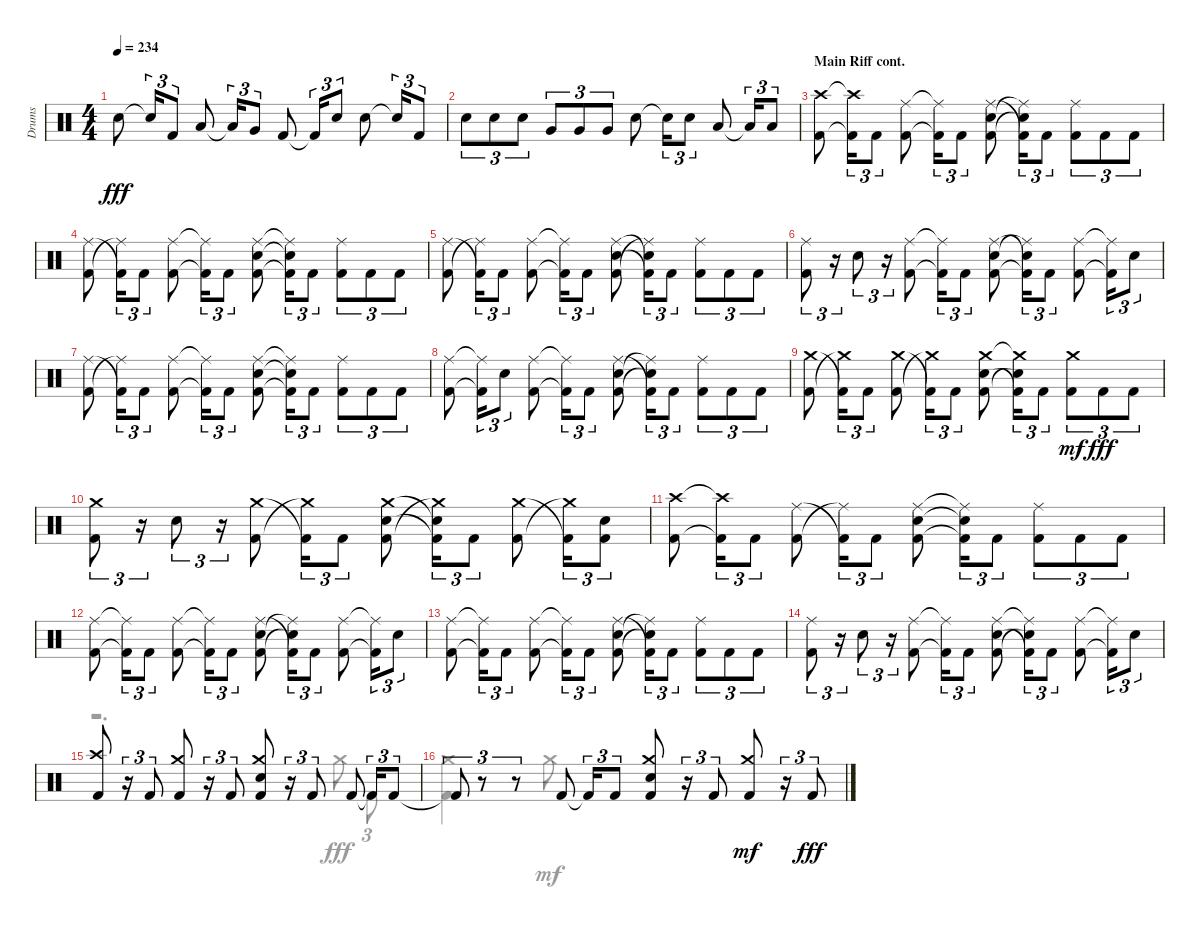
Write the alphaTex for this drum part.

\track ("Drums" "Drums") {instrument percussion}
\staff {score}
\articulation defaults
\voice
\ts (4 4)
\tempo 234
\clef neutral
\ks aminor "Snare (hit) 2".8{dy fff} "Snare (hit) 2"{t}.16{tu (3 2)} "Kick (hit) 2".8{tu (3 2)} "Low Tom (hit)".8 "Low Tom (hit)"{t}.16{tu (3 2)} "Very Low Tom (hit)".8{tu (3 2)} "Kick (hit) 2".8 "Kick (hit) 2"{t}.16{tu (3 2)} "Snare (hit) 2".8{tu (3 2)} "Snare (hit) 2".8 "Snare (hit) 2"{t}.16{tu (3 2)} "Kick (hit) 2".8{tu (3 2)}
|
"Snare (hit) 2".8{tu (3 2)} "Snare (hit) 2".8{tu (3 2)} "Snare (hit) 2".8{tu (3 2)} "Very Low Tom (hit)".8{tu (3 2)} "Very Low Tom (hit)".8{tu (3 2)} "Very Low Tom (hit)".8{tu (3 2)} "Snare (hit) 2".8 "Snare (hit) 2"{t}.16{tu (3 2)} "Snare (hit) 2".8{tu (3 2)} "Low Floor Tom (hit)".8 "Low Floor Tom (hit)"{t}.16{tu (3 2)} "Low Floor Tom (hit)".8{tu (3 2)} |
\section ("" "Main Riff cont.")
("Kick (hit) 2" "Crash high (hit)").8 ("Kick (hit) 2"{t} "Crash high (hit)"{t}).16{tu (3 2)} "Kick (hit) 2".8{tu (3 2)} ("Kick (hit) 2" "Ride (middle)").8 ("Kick (hit) 2"{t} "Ride (middle)"{t}).16{tu (3 2)} "Kick (hit) 2".8{tu (3 2)} ("Kick (hit) 2" "Snare (hit) 2" "Ride (middle)").8 ("Snare (hit) 2"{t} "Ride (middle)"{t} "Kick (hit) 2"{t}).16{tu (3 2)} "Kick (hit) 2".8{tu (3 2)} ("Kick (hit) 2" "Ride (middle)").8{tu (3 2)} "Kick (hit) 2".8{tu (3 2)} "Kick (hit) 2".8{tu (3 2)} |
("Ride (middle)" "Kick (hit) 2").8 ("Kick (hit) 2"{t} "Ride (middle)"{t}).16{tu (3 2)} "Kick (hit) 2".8{tu (3 2)} ("Ride (middle)" "Kick (hit) 2").8 ("Ride (middle)"{t} "Kick (hit) 2"{t}).16{tu (3 2)} "Kick (hit) 2".8{tu (3 2)} ("Ride (middle)" "Kick (hit) 2" "Snare (hit) 2").8 ("Ride (middle)"{t} "Kick (hit) 2"{t} "Snare (hit) 2"{t}).16{tu (3 2)} "Kick (hit) 2".8{tu (3 2)} ("Ride (middle)" "Kick (hit) 2").8{tu (3 2)} "Kick (hit) 2".8{tu (3 2)} "Kick (hit) 2".8{tu (3 2)} |
("Kick (hit) 2" "Ride (middle)").8 ("Ride (middle)"{t} "Kick (hit) 2"{t}).16{tu (3 2)} "Kick (hit) 2".8{tu (3 2)} ("Ride (middle)" "Kick (hit) 2").8 ("Ride (middle)"{t} "Kick (hit) 2"{t}).16{tu (3 2)} "Kick (hit) 2".8{tu (3 2)} ("Kick (hit) 2" "Ride (middle)" "Snare (hit) 2").8 ("Ride (middle)"{t} "Snare (hit) 2"{t} "Kick (hit) 2"{t}).16{tu (3 2)} "Kick (hit) 2".8{tu (3 2)} ("Ride (middle)" "Kick (hit) 2").8{tu (3 2)} "Kick (hit) 2".8{tu (3 2)} "Kick (hit) 2".8{tu (3 2)} |
("Kick (hit) 2" "Ride (middle)").8{tu (3 2)} r.16{tu (3 2)} "Snare (hit) 2".8{tu (3 2)} r.16{tu (3 2)} ("Ride (middle)" "Kick (hit) 2").8 ("Ride (middle)"{t} "Kick (hit) 2"{t}).16{tu (3 2)} "Kick (hit) 2".8{tu (3 2)} ("Kick (hit) 2" "Ride (middle)" "Snare (hit) 2").8 ("Kick (hit) 2"{t} "Snare (hit) 2"{t} "Ride (middle)"{t}).16{tu (3 2)} "Kick (hit) 2".8{tu (3 2)} ("Ride (middle)" "Kick (hit) 2").8 ("Ride (middle)"{t} "Kick (hit) 2"{t}).16{tu (3 2)} "Snare (hit) 2".8{tu (3 2)} |
("Ride (middle)" "Kick (hit) 2").8 ("Kick (hit) 2"{t} "Ride (middle)"{t}).16{tu (3 2)} "Kick (hit) 2".8{tu (3 2)} ("Kick (hit) 2" "Ride (middle)").8 ("Kick (hit) 2"{t} "Ride (middle)"{t}).16{tu (3 2)} "Kick (hit) 2".8{tu (3 2)} ("Ride (middle)" "Snare (hit) 2" "Kick (hit) 2").8 ("Ride (middle)"{t} "Snare (hit) 2"{t} "Kick (hit) 2"{t}).16{tu (3 2)} "Kick (hit) 2".8{tu (3 2)} ("Ride (middle)" "Kick (hit) 2").8{tu (3 2)} "Kick (hit) 2".8{tu (3 2)} "Kick (hit) 2".8{tu (3 2)} |
("Ride (middle)" "Kick (hit) 2").8 ("Ride (middle)"{t} "Kick (hit) 2"{t}).16{tu (3 2)} "Snare (hit) 2".8{tu (3 2)} ("Kick (hit) 2" "Ride (middle)").8 ("Kick (hit) 2"{t} "Ride (middle)"{t}).16{tu (3 2)} "Kick (hit) 2".8{tu (3 2)} ("Kick (hit) 2" "Snare (hit) 2" "Ride (middle)").8 ("Snare (hit) 2"{t} "Ride (middle)"{t} "Kick (hit) 2"{t}).16{tu (3 2)} "Kick (hit) 2".8{tu (3 2)} ("Kick (hit) 2" "Ride (middle)").8{tu (3 2)} "Kick (hit) 2".8{tu (3 2)} "Kick (hit) 2".8{tu (3 2)} |
("Crash medium (hit)" "Kick (hit) 2").8 ("Kick (hit) 2"{t} "Crash medium (hit)"{t}).16{tu (3 2)} "Kick (hit) 2".8{tu (3 2)} ("Kick (hit) 2" "Crash medium (hit)").8 ("Crash medium (hit)"{t} "Kick (hit) 2"{t}).16{tu (3 2)} "Kick (hit) 2".8{tu (3 2)} ("Crash medium (hit)" "Snare (hit) 2" "Kick (hit) 2").8 ("Crash medium (hit)"{t} "Kick (hit) 2"{t} "Snare (hit) 2"{t}).16{tu (3 2)} "Kick (hit) 2".8{tu (3 2)} ("Kick (hit) 2" "Crash medium (hit)").8{tu (3 2) dy mf} "Kick (hit) 2".8{tu (3 2) dy fff} "Kick (hit) 2".8{tu (3 2)} |
("Crash medium (hit)" "Kick (hit) 2").8{tu (3 2)} r.16{tu (3 2)} "Snare (hit) 2".8{tu (3 2)} r.16{tu (3 2)} ("Kick (hit) 2" "Crash medium (hit)").8 ("Crash medium (hit)"{t} "Kick (hit) 2"{t}).16{tu (3 2)} "Kick (hit) 2".8{tu (3 2)} ("Snare (hit) 2" "Crash medium (hit)" "Kick (hit) 2").8 ("Kick (hit) 2"{t} "Snare (hit) 2"{t} "Crash medium (hit)"{t}).16{tu (3 2)} "Kick (hit) 2".8{tu (3 2)} ("Kick (hit) 2" "Crash medium (hit)").8 ("Crash medium (hit)"{t} "Kick (hit) 2"{t}).16{tu (3 2)} ("Kick (hit) 2" "Snare (hit) 2").8{tu (3 2)} |
("Crash high (hit)" "Kick (hit) 2").8 ("Crash high (hit)"{t} "Kick (hit) 2"{t}).16{tu (3 2)} "Kick (hit) 2".8{tu (3 2)} ("Ride (middle)" "Kick (hit) 2").8 ("Kick (hit) 2"{t} "Ride (middle)"{t}).16{tu (3 2)} "Kick (hit) 2".8{tu (3 2)} ("Kick (hit) 2" "Ride (middle)" "Snare (hit) 2").8 ("Kick (hit) 2"{t} "Ride (middle)"{t} "Snare (hit) 2"{t}).16{tu (3 2)} "Kick (hit) 2".8{tu (3 2)} ("Kick (hit) 2" "Ride (middle)").8{tu (3 2)} "Kick (hit) 2".8{tu (3 2)} "Kick (hit) 2".8{tu (3 2)} |
("Ride (middle)" "Kick (hit) 2").8 ("Ride (middle)"{t} "Kick (hit) 2"{t}).16{tu (3 2)} "Kick (hit) 2".8{tu (3 2)} ("Ride (middle)" "Kick (hit) 2").8 ("Ride (middle)"{t} "Kick (hit) 2"{t}).16{tu (3 2)} "Kick (hit) 2".8{tu (3 2)} ("Snare (hit) 2" "Ride (middle)" "Kick (hit) 2").8 ("Ride (middle)"{t} "Kick (hit) 2"{t} "Snare (hit) 2"{t}).16{tu (3 2)} "Kick (hit) 2".8{tu (3 2)} ("Kick (hit) 2" "Ride (middle)").8 ("Kick (hit) 2"{t} "Ride (middle)"{t}).16{tu (3 2)} "Snare (hit) 2".8{tu (3 2)} |
("Ride (middle)" "Kick (hit) 2").8 ("Ride (middle)"{t} "Kick (hit) 2"{t}).16{tu (3 2)} "Kick (hit) 2".8{tu (3 2)} ("Kick (hit) 2" "Ride (middle)").8 ("Kick (hit) 2"{t} "Ride (middle)"{t}).16{tu (3 2)} "Kick (hit) 2".8{tu (3 2)} ("Snare (hit) 2" "Kick (hit) 2" "Ride (middle)").8 ("Ride (middle)"{t} "Snare (hit) 2"{t} "Kick (hit) 2"{t}).16{tu (3 2)} "Kick (hit) 2".8{tu (3 2)} ("Kick (hit) 2" "Ride (middle)").8{tu (3 2)} "Kick (hit) 2".8{tu (3 2)} "Kick (hit) 2".8{tu (3 2)} |
("Ride (middle)" "Kick (hit) 2").8{tu (3 2)} r.16{tu (3 2)} "Snare (hit) 2".8{tu (3 2)} r.16{tu (3 2)} ("Ride (middle)" "Kick (hit) 2").8 ("Ride (middle)"{t} "Kick (hit) 2"{t}).16{tu (3 2)} "Kick (hit) 2".8{tu (3 2)} ("Kick (hit) 2" "Ride (middle)" "Snare (hit) 2").8 ("Snare (hit) 2"{t} "Ride (middle)"{t} "Kick (hit) 2"{t}).16{tu (3 2)} "Kick (hit) 2".8{tu (3 2)} ("Ride (middle)" "Kick (hit) 2").8 ("Ride (middle)"{t} "Kick (hit) 2"{t}).16{tu (3 2)} "Snare (hit) 2".8{tu (3 2)} |
("Crash high (hit)" "Kick (hit) 2").8 r.16{tu (3 2)} "Kick (hit) 2".8{tu (3 2)} ("Crash medium (hit)" "Kick (hit) 2").8 r.16{tu (3 2)} "Kick (hit) 2".8{tu (3 2)} ("Snare (hit) 2" "Crash medium (hit)" "Kick (hit) 2").8 r.16{tu (3 2)} "Kick (hit) 2".8{tu (3 2)} "Kick (hit) 2".8 "Kick (hit) 2"{t}.16{tu (3 2)} "Kick (hit) 2".8{tu (3 2)} |
"Kick (hit) 2"{t}.8{tu (3 2)} r.8{tu (3 2)} r.8{tu (3 2)} "Kick (hit) 2".8 "Kick (hit) 2"{t}.16{tu (3 2)} "Kick (hit) 2".8{tu (3 2)} ("Snare (hit) 2" "Kick (hit) 2" "Crash medium (hit)").8 r.16{tu (3 2)} "Kick (hit) 2".8{tu (3 2)} ("Kick (hit) 2" "Crash medium (hit)").8{dy mf} r.16{tu (3 2)} "Kick (hit) 2".8{tu (3 2) dy fff}
\voice
\clef neutral
\ottava regular
\simile none
\ks aminor
|
|
|
|
|
|
|
|
|
|
|
|
|
|
r.2{d} "Crash medium (hit)".8 "Kick (hit) 2".8{tu (3 2) dy fff} |
("Kick (hit) 2" "Crash medium (hit)").4 "Crash medium (hit)".8{dy mf}
